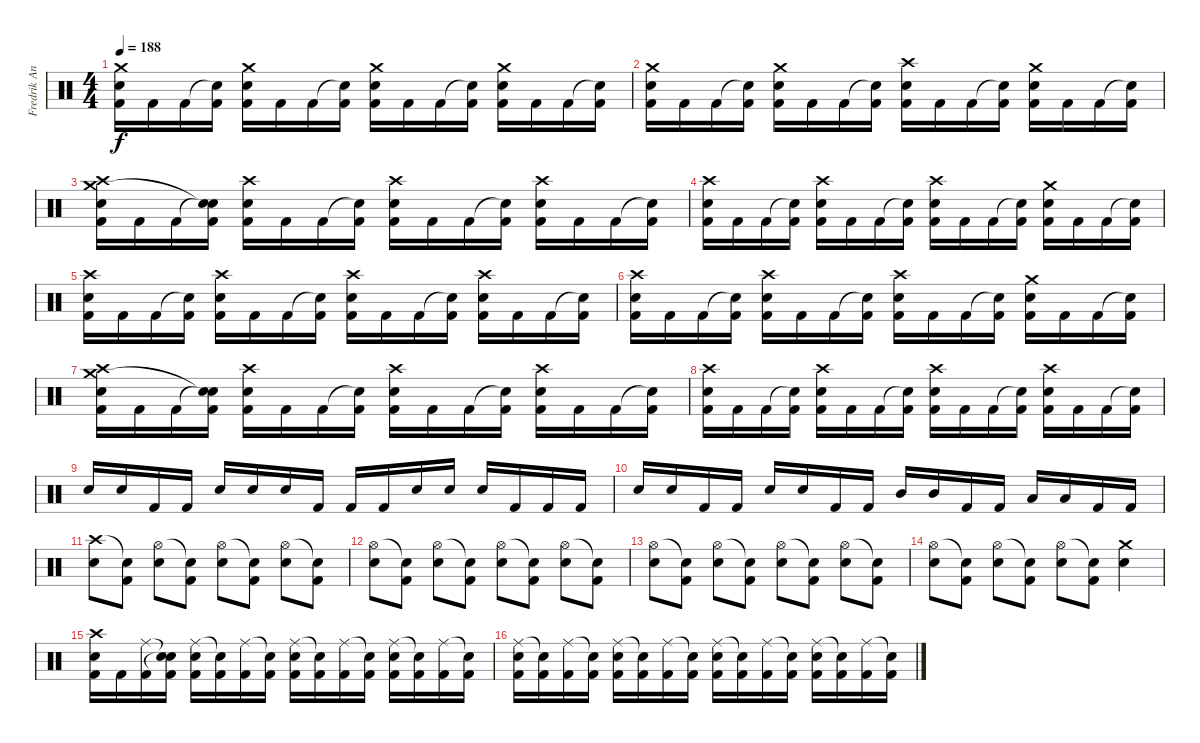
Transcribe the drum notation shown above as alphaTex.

\track ("Fredrik Andersson" "Fredrik An") {instrument percussion}
\staff {score}
\articulation defaults
\ts (4 4)
\tempo 188
\clef neutral
\ks c
("Crash medium (hit)" "Snare (hit) 2" "Kick (hit) 2").16{dy f} "Kick (hit) 2".16 "Kick (hit) 2".16 ("Snare (hit)"{t} "Kick (hit) 2").16 ("Crash medium (hit)" "Snare (hit) 2" "Kick (hit) 2").16 "Kick (hit) 2".16 "Kick (hit) 2".16 ("Snare (hit)"{t} "Kick (hit) 2").16 ("Crash medium (hit)" "Snare (hit) 2" "Kick (hit) 2").16 "Kick (hit) 2".16 "Kick (hit) 2".16 ("Snare (hit)"{t} "Kick (hit) 2").16 ("Crash medium (hit)" "Snare (hit) 2" "Kick (hit) 2").16 "Kick (hit) 2".16 "Kick (hit) 2".16 ("Snare (hit)"{t} "Kick (hit) 2").16 |
("Crash medium (hit)" "Snare (hit) 2" "Kick (hit) 2").16 "Kick (hit) 2".16 "Kick (hit) 2".16 ("Snare (hit)"{t} "Kick (hit) 2").16 ("Crash medium (hit)" "Snare (hit) 2" "Kick (hit) 2").16 "Kick (hit) 2".16 "Kick (hit) 2".16 ("Snare (hit)"{t} "Kick (hit) 2").16 ("Crash high (hit)" "Snare (hit) 2" "Kick (hit) 2").16 "Kick (hit) 2".16 "Kick (hit) 2".16 ("Snare (hit)"{t} "Kick (hit) 2").16 ("Crash medium (hit)" "Snare (hit) 2" "Kick (hit) 2").16 "Kick (hit) 2".16 "Kick (hit) 2".16 ("Snare (hit)"{t} "Kick (hit) 2").16 |
("Crash high (hit)" "Crash medium (hit)" "Snare (hit) 2" "Kick (hit) 2").16 "Kick (hit) 2".16 "Kick (hit) 2".16 ("Snare (hit)"{t} "Snare (hit)"{t} "Kick (hit) 2").16 ("Crash high (hit)" "Snare (hit) 2" "Kick (hit) 2").16 "Kick (hit) 2".16 "Kick (hit) 2".16 ("Snare (hit)"{t} "Kick (hit) 2").16 ("Crash high (hit)" "Snare (hit) 2" "Kick (hit) 2").16 "Kick (hit) 2".16 "Kick (hit) 2".16 ("Snare (hit)"{t} "Kick (hit) 2").16 ("Crash high (hit)" "Snare (hit) 2" "Kick (hit) 2").16 "Kick (hit) 2".16 "Kick (hit) 2".16 ("Snare (hit)"{t} "Kick (hit) 2").16 |
("Crash high (hit)" "Snare (hit) 2" "Kick (hit) 2").16 "Kick (hit) 2".16 "Kick (hit) 2".16 ("Snare (hit)"{t} "Kick (hit) 2").16 ("Crash high (hit)" "Snare (hit) 2" "Kick (hit) 2").16 "Kick (hit) 2".16 "Kick (hit) 2".16 ("Snare (hit)"{t} "Kick (hit) 2").16 ("Crash high (hit)" "Snare (hit) 2" "Kick (hit) 2").16 "Kick (hit) 2".16 "Kick (hit) 2".16 ("Snare (hit)"{t} "Kick (hit) 2").16 ("Crash medium (hit)" "Snare (hit) 2" "Kick (hit) 2").16 "Kick (hit) 2".16 "Kick (hit) 2".16 ("Snare (hit)"{t} "Kick (hit) 2").16 |
("Crash high (hit)" "Snare (hit) 2" "Kick (hit) 2").16 "Kick (hit) 2".16 "Kick (hit) 2".16 ("Snare (hit)"{t} "Kick (hit) 2").16 ("Crash high (hit)" "Snare (hit) 2" "Kick (hit) 2").16 "Kick (hit) 2".16 "Kick (hit) 2".16 ("Snare (hit)"{t} "Kick (hit) 2").16 ("Crash high (hit)" "Snare (hit) 2" "Kick (hit) 2").16 "Kick (hit) 2".16 "Kick (hit) 2".16 ("Snare (hit)"{t} "Kick (hit) 2").16 ("Crash high (hit)" "Snare (hit) 2" "Kick (hit) 2").16 "Kick (hit) 2".16 "Kick (hit) 2".16 ("Snare (hit)"{t} "Kick (hit) 2").16 |
("Crash high (hit)" "Snare (hit) 2" "Kick (hit) 2").16 "Kick (hit) 2".16 "Kick (hit) 2".16 ("Snare (hit)"{t} "Kick (hit) 2").16 ("Crash high (hit)" "Snare (hit) 2" "Kick (hit) 2").16 "Kick (hit) 2".16 "Kick (hit) 2".16 ("Snare (hit)"{t} "Kick (hit) 2").16 ("Crash high (hit)" "Snare (hit) 2" "Kick (hit) 2").16 "Kick (hit) 2".16 "Kick (hit) 2".16 ("Snare (hit)"{t} "Kick (hit) 2").16 ("Crash medium (hit)" "Snare (hit) 2" "Kick (hit) 2").16 "Kick (hit) 2".16 "Kick (hit) 2".16 ("Snare (hit)"{t} "Kick (hit) 2").16 |
("Crash high (hit)" "Crash medium (hit)" "Snare (hit) 2" "Kick (hit) 2").16 "Kick (hit) 2".16 "Kick (hit) 2".16 ("Snare (hit)"{t} "Snare (hit)"{t} "Kick (hit) 2").16 ("Crash high (hit)" "Snare (hit) 2" "Kick (hit) 2").16 "Kick (hit) 2".16 "Kick (hit) 2".16 ("Snare (hit)"{t} "Kick (hit) 2").16 ("Crash high (hit)" "Snare (hit) 2" "Kick (hit) 2").16 "Kick (hit) 2".16 "Kick (hit) 2".16 ("Snare (hit)"{t} "Kick (hit) 2").16 ("Crash high (hit)" "Snare (hit) 2" "Kick (hit) 2").16 "Kick (hit) 2".16 "Kick (hit) 2".16 ("Snare (hit)"{t} "Kick (hit) 2").16 |
("Crash high (hit)" "Snare (hit) 2" "Kick (hit) 2").16 "Kick (hit) 2".16 "Kick (hit) 2".16 ("Snare (hit)"{t} "Kick (hit) 2").16 ("Crash high (hit)" "Snare (hit) 2" "Kick (hit) 2").16 "Kick (hit) 2".16 "Kick (hit) 2".16 ("Snare (hit)"{t} "Kick (hit) 2").16 ("Crash high (hit)" "Snare (hit) 2" "Kick (hit) 2").16 "Kick (hit) 2".16 "Kick (hit) 2".16 ("Snare (hit)"{t} "Kick (hit) 2").16 ("Crash high (hit)" "Snare (hit) 2" "Kick (hit) 2").16 "Kick (hit) 2".16 "Kick (hit) 2".16 ("Snare (hit)"{t} "Kick (hit) 2").16 |
"Snare (hit) 2".16 "Snare (hit) 2".16 "Kick (hit) 2".16 "Kick (hit) 2".16 "Snare (hit) 2".16 "Snare (hit) 2".16 "Snare (hit) 2".16 "Kick (hit) 2".16 "Kick (hit) 2".16 "Kick (hit) 2".16 "Snare (hit) 2".16 "Snare (hit) 2".16 "Snare (hit) 2".16 "Kick (hit) 2".16 "Kick (hit) 2".16 "Kick (hit) 2".16 |
"Snare (hit) 2".16 "Snare (hit) 2".16 "Kick (hit) 2".16 "Kick (hit) 2".16 "Snare (hit) 2".16 "Snare (hit) 2".16 "Kick (hit) 2".16 "Kick (hit) 2".16 "Mid Tom (hit)".16 "Mid Tom (hit)".16 "Kick (hit) 2".16 "Kick (hit) 2".16 "Low Tom (hit)".16 "Low Tom (hit)".16 "Kick (hit) 2".16 "Kick (hit) 2".16 |
("Crash high (hit)" "Snare (hit) 2").8 ("Snare (hit)"{t} "Kick (hit) 2").8 ("Hi-Hat (open)" "Snare (hit) 2").8 ("Snare (hit)"{t} "Kick (hit) 2").8 ("Hi-Hat (open)" "Snare (hit) 2").8 ("Snare (hit)"{t} "Kick (hit) 2").8 ("Hi-Hat (open)" "Snare (hit) 2").8 ("Snare (hit)"{t} "Kick (hit) 2").8 |
("Hi-Hat (open)" "Snare (hit) 2").8 ("Snare (hit)"{t} "Kick (hit) 2").8 ("Hi-Hat (open)" "Snare (hit) 2").8 ("Snare (hit)"{t} "Kick (hit) 2").8 ("Hi-Hat (open)" "Snare (hit) 2").8 ("Snare (hit)"{t} "Kick (hit) 2").8 ("Hi-Hat (open)" "Snare (hit) 2").8 ("Snare (hit)"{t} "Kick (hit) 2").8 |
("Hi-Hat (open)" "Snare (hit) 2").8 ("Snare (hit)"{t} "Kick (hit) 2").8 ("Hi-Hat (open)" "Snare (hit) 2").8 ("Snare (hit)"{t} "Kick (hit) 2").8 ("Hi-Hat (open)" "Snare (hit) 2").8 ("Snare (hit)"{t} "Kick (hit) 2").8 ("Hi-Hat (open)" "Snare (hit) 2").8 ("Snare (hit)"{t} "Kick (hit) 2").8 |
("Hi-Hat (open)" "Snare (hit) 2").8 ("Snare (hit)"{t} "Kick (hit) 2").8 ("Hi-Hat (open)" "Snare (hit) 2").8 ("Snare (hit)"{t} "Kick (hit) 2").8 ("Hi-Hat (open)" "Snare (hit) 2").8 ("Snare (hit)"{t} "Kick (hit) 2").8 ("Crash medium (hit)" "Snare (hit) 2").4 |
("Crash high (hit)" "Snare (hit) 2" "Kick (hit) 2").16 "Kick (hit) 2".16 ("Ride (middle)" "Kick (hit) 2").16 ("Snare (hit)"{t} "Snare (hit)"{t} "Kick (hit) 2").16 ("Ride (middle)" "Snare (hit) 2" "Kick (hit) 2").16 ("Snare (hit)"{t} "Kick (hit) 2").16 ("Ride (middle)" "Kick (hit) 2").16 ("Snare (hit)"{t} "Kick (hit) 2").16 ("Ride (middle)" "Snare (hit) 2" "Kick (hit) 2").16 ("Snare (hit)"{t} "Kick (hit) 2").16 ("Ride (middle)" "Kick (hit) 2").16 ("Snare (hit)"{t} "Kick (hit) 2").16 ("Ride (middle)" "Snare (hit) 2" "Kick (hit) 2").16 ("Snare (hit)"{t} "Kick (hit) 2").16 ("Ride (middle)" "Kick (hit) 2").16 ("Snare (hit)"{t} "Kick (hit) 2").16 |
("Ride (middle)" "Snare (hit) 2" "Kick (hit) 2").16 ("Snare (hit)"{t} "Kick (hit) 2").16 ("Ride (middle)" "Kick (hit) 2").16 ("Snare (hit)"{t} "Kick (hit) 2").16 ("Ride (middle)" "Snare (hit) 2" "Kick (hit) 2").16 ("Snare (hit)"{t} "Kick (hit) 2").16 ("Ride (middle)" "Kick (hit) 2").16 ("Snare (hit)"{t} "Kick (hit) 2").16 ("Ride (middle)" "Snare (hit) 2" "Kick (hit) 2").16 ("Snare (hit)"{t} "Kick (hit) 2").16 ("Ride (middle)" "Kick (hit) 2").16 ("Snare (hit)"{t} "Kick (hit) 2").16 ("Ride (middle)" "Snare (hit) 2" "Kick (hit) 2").16 ("Snare (hit)"{t} "Kick (hit) 2").16 ("Ride (middle)" "Kick (hit) 2").16 ("Snare (hit)"{t} "Kick (hit) 2").16
